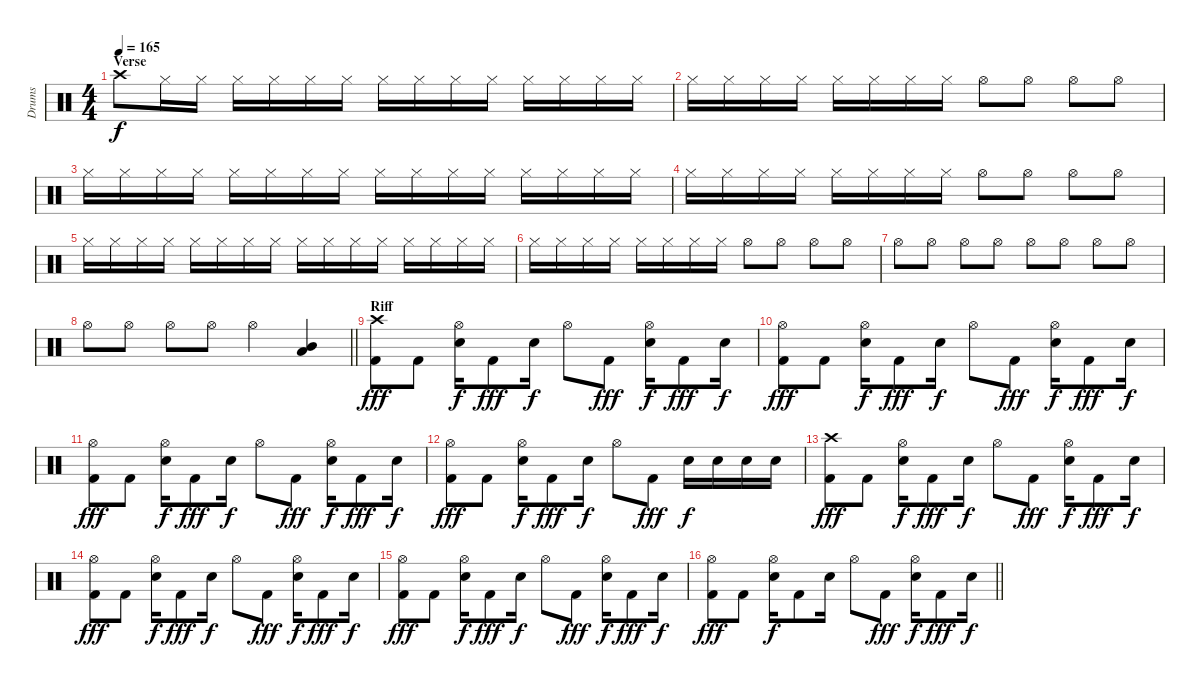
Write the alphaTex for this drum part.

\track ("Drums" "Drums") {instrument percussion}
\staff {score}
\articulation defaults
\ts (4 4)
\section ("" "Verse")
\tempo 165
\clef neutral
\ks c "Crash high (hit)".8{dy f} "Hi-Hat (closed)".16 "Hi-Hat (closed)".16 "Hi-Hat (closed)".16 "Hi-Hat (closed)".16 "Hi-Hat (closed)".16 "Hi-Hat (closed)".16 "Hi-Hat (closed)".16 "Hi-Hat (closed)".16 "Hi-Hat (closed)".16 "Hi-Hat (closed)".16 "Hi-Hat (closed)".16 "Hi-Hat (closed)".16 "Hi-Hat (closed)".16 "Hi-Hat (closed)".16
|
"Hi-Hat (closed)".16 "Hi-Hat (closed)".16 "Hi-Hat (closed)".16 "Hi-Hat (closed)".16 "Hi-Hat (closed)".16 "Hi-Hat (closed)".16 "Hi-Hat (closed)".16 "Hi-Hat (closed)".16 "Hi-Hat (open)".8 "Hi-Hat (open)".8 "Hi-Hat (open)".8 "Hi-Hat (open)".8 |
"Hi-Hat (closed)".16 "Hi-Hat (closed)".16 "Hi-Hat (closed)".16 "Hi-Hat (closed)".16 "Hi-Hat (closed)".16 "Hi-Hat (closed)".16 "Hi-Hat (closed)".16 "Hi-Hat (closed)".16 "Hi-Hat (closed)".16 "Hi-Hat (closed)".16 "Hi-Hat (closed)".16 "Hi-Hat (closed)".16 "Hi-Hat (closed)".16 "Hi-Hat (closed)".16 "Hi-Hat (closed)".16 "Hi-Hat (closed)".16 |
"Hi-Hat (closed)".16 "Hi-Hat (closed)".16 "Hi-Hat (closed)".16 "Hi-Hat (closed)".16 "Hi-Hat (closed)".16 "Hi-Hat (closed)".16 "Hi-Hat (closed)".16 "Hi-Hat (closed)".16 "Hi-Hat (open)".8 "Hi-Hat (open)".8 "Hi-Hat (open)".8 "Hi-Hat (open)".8 |
"Hi-Hat (closed)".16 "Hi-Hat (closed)".16 "Hi-Hat (closed)".16 "Hi-Hat (closed)".16 "Hi-Hat (closed)".16 "Hi-Hat (closed)".16 "Hi-Hat (closed)".16 "Hi-Hat (closed)".16 "Hi-Hat (closed)".16 "Hi-Hat (closed)".16 "Hi-Hat (closed)".16 "Hi-Hat (closed)".16 "Hi-Hat (closed)".16 "Hi-Hat (closed)".16 "Hi-Hat (closed)".16 "Hi-Hat (closed)".16 |
"Hi-Hat (closed)".16 "Hi-Hat (closed)".16 "Hi-Hat (closed)".16 "Hi-Hat (closed)".16 "Hi-Hat (closed)".16 "Hi-Hat (closed)".16 "Hi-Hat (closed)".16 "Hi-Hat (closed)".16 "Hi-Hat (open)".8 "Hi-Hat (open)".8 "Hi-Hat (open)".8 "Hi-Hat (open)".8 |
"Hi-Hat (open)".8 "Hi-Hat (open)".8 "Hi-Hat (open)".8 "Hi-Hat (open)".8 "Hi-Hat (open)".8 "Hi-Hat (open)".8 "Hi-Hat (open)".8 "Hi-Hat (open)".8 |
\barLineRight lightlight "Hi-Hat (open)".8 "Hi-Hat (open)".8 "Hi-Hat (open)".8 "Hi-Hat (open)".8 "Hi-Hat (open)".4
("Mid Tom (hit)" "Low Floor Tom (hit)").4 |
\section ("" "Riff")
("Crash high (hit)" "Kick (hit) 2").8{dy fff} "Kick (hit) 2".8 ("Hi-Hat (open)" "Snare (hit) 2").16{dy f} "Kick (hit) 2".8{dy fff} "Snare (hit) 2".16{dy f} "Hi-Hat (open)".8 "Kick (hit) 2".8{dy fff} ("Hi-Hat (open)" "Snare (hit) 2").16{dy f} "Kick (hit) 2".8{dy fff} "Snare (hit) 2".16{dy f} |
("Hi-Hat (open)" "Kick (hit) 2").8{dy fff} "Kick (hit) 2".8 ("Hi-Hat (open)" "Snare (hit) 2").16{dy f} "Kick (hit) 2".8{dy fff} "Snare (hit) 2".16{dy f} "Hi-Hat (open)".8 "Kick (hit) 2".8{dy fff} ("Hi-Hat (open)" "Snare (hit) 2").16{dy f} "Kick (hit) 2".8{dy fff} "Snare (hit) 2".16{dy f} |
("Hi-Hat (open)" "Kick (hit) 2").8{dy fff} "Kick (hit) 2".8 ("Hi-Hat (open)" "Snare (hit) 2").16{dy f} "Kick (hit) 2".8{dy fff} "Snare (hit) 2".16{dy f} "Hi-Hat (open)".8 "Kick (hit) 2".8{dy fff} ("Hi-Hat (open)" "Snare (hit) 2").16{dy f} "Kick (hit) 2".8{dy fff} "Snare (hit) 2".16{dy f} |
("Hi-Hat (open)" "Kick (hit) 2").8{dy fff} "Kick (hit) 2".8 ("Hi-Hat (open)" "Snare (hit) 2").16{dy f} "Kick (hit) 2".8{dy fff} "Snare (hit) 2".16{dy f} "Hi-Hat (open)".8 "Kick (hit) 2".8{dy fff} "Snare (hit) 2".16{dy f} "Snare (hit) 2".16 "Snare (hit) 2".16 "Snare (hit) 2".16 |
("Crash high (hit)" "Kick (hit) 2").8{dy fff} "Kick (hit) 2".8 ("Hi-Hat (open)" "Snare (hit) 2").16{dy f} "Kick (hit) 2".8{dy fff} "Snare (hit) 2".16{dy f} "Hi-Hat (open)".8 "Kick (hit) 2".8{dy fff} ("Hi-Hat (open)" "Snare (hit) 2").16{dy f} "Kick (hit) 2".8{dy fff} "Snare (hit) 2".16{dy f} |
("Hi-Hat (open)" "Kick (hit) 2").8{dy fff} "Kick (hit) 2".8 ("Hi-Hat (open)" "Snare (hit) 2").16{dy f} "Kick (hit) 2".8{dy fff} "Snare (hit) 2".16{dy f} "Hi-Hat (open)".8 "Kick (hit) 2".8{dy fff} ("Hi-Hat (open)" "Snare (hit) 2").16{dy f} "Kick (hit) 2".8{dy fff} "Snare (hit) 2".16{dy f} |
("Hi-Hat (open)" "Kick (hit) 2").8{dy fff} "Kick (hit) 2".8 ("Hi-Hat (open)" "Snare (hit) 2").16{dy f} "Kick (hit) 2".8{dy fff} "Snare (hit) 2".16{dy f} "Hi-Hat (open)".8 "Kick (hit) 2".8{dy fff} ("Hi-Hat (open)" "Snare (hit) 2").16{dy f} "Kick (hit) 2".8{dy fff} "Snare (hit) 2".16{dy f} |
\barLineRight lightlight
("Hi-Hat (open)" "Kick (hit) 2").8{dy fff} "Kick (hit) 2".8 ("Hi-Hat (open)" "Snare (hit) 2").16{dy f} "Kick (hit) 2".8 "Snare (hit) 2".16 "Hi-Hat (open)".8 "Kick (hit) 2".8{dy fff} ("Hi-Hat (open)" "Snare (hit) 2").16{dy f} "Kick (hit) 2".8{dy fff} "Snare (hit) 2".16{dy f}
